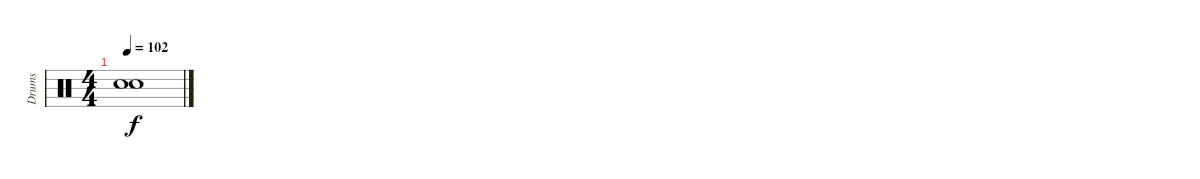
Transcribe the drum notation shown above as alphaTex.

\track ("Drums" "Drums") {instrument percussion}
\staff
\articulation defaults
\ts (4 4)
\tempo 102
\clef neutral
\ks c
("Snare (hit)"{t} "Snare (hit)"{t}).1{dy f}
